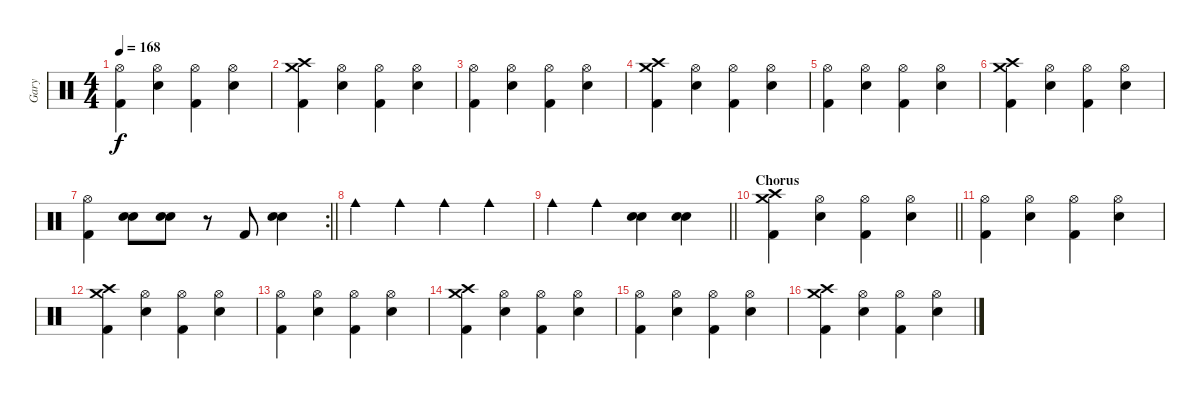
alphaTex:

\track ("Gary" "Gary") {instrument percussion}
\staff {score}
\articulation defaults
\ts (4 4)
\tempo 168
\clef neutral
\ks c
("Hi-Hat (open)" "Kick (hit) 2").4{dy f} ("Hi-Hat (open)" "Electric Snare (hit)").4 ("Hi-Hat (open)" "Kick (hit) 2").4 ("Hi-Hat (open)" "Electric Snare (hit)").4 |
("Crash medium (hit)" "Crash high (hit)" "Kick (hit) 2").4 ("Hi-Hat (open)" "Electric Snare (hit)").4 ("Hi-Hat (open)" "Kick (hit) 2").4 ("Hi-Hat (open)" "Electric Snare (hit)").4 |
("Hi-Hat (open)" "Kick (hit) 2").4 ("Hi-Hat (open)" "Electric Snare (hit)").4 ("Hi-Hat (open)" "Kick (hit) 2").4 ("Hi-Hat (open)" "Electric Snare (hit)").4 |
("Crash medium (hit)" "Crash high (hit)" "Kick (hit) 2").4 ("Hi-Hat (open)" "Electric Snare (hit)").4 ("Hi-Hat (open)" "Kick (hit) 2").4 ("Hi-Hat (open)" "Electric Snare (hit)").4 |
("Hi-Hat (open)" "Kick (hit) 2").4 ("Hi-Hat (open)" "Electric Snare (hit)").4 ("Hi-Hat (open)" "Kick (hit) 2").4 ("Hi-Hat (open)" "Electric Snare (hit)").4 |
("Crash medium (hit)" "Crash high (hit)" "Kick (hit) 2").4 ("Hi-Hat (open)" "Electric Snare (hit)").4 ("Hi-Hat (open)" "Kick (hit) 2").4 ("Hi-Hat (open)" "Electric Snare (hit)").4 |
\rc 2
\barLineRight lightlight
("Hi-Hat (open)" "Kick (hit) 2").4 ("Electric Snare (hit)" "Electric Snare (hit)").8 ("Electric Snare (hit)" "Electric Snare (hit)").8 r.8 "Kick (hit) 2".8 ("Electric Snare (hit)" "Electric Snare (hit)").4 |
"Cowbell medium (hit)".4 "Cowbell medium (hit)".4 "Cowbell medium (hit)".4 "Cowbell medium (hit)".4 |
\barLineRight lightlight "Cowbell medium (hit)".4 "Cowbell medium (hit)".4
("Electric Snare (hit)" "Electric Snare (hit)").4 ("Electric Snare (hit)" "Electric Snare (hit)").4 |
\section ("" "Chorus")
\barLineRight lightlight
("Crash medium (hit)" "Crash high (hit)" "Kick (hit) 2").4 ("Hi-Hat (open)" "Electric Snare (hit)").4 ("Hi-Hat (open)" "Kick (hit) 2").4 ("Hi-Hat (open)" "Electric Snare (hit)").4 |
("Hi-Hat (open)" "Kick (hit) 2").4 ("Hi-Hat (open)" "Electric Snare (hit)").4 ("Hi-Hat (open)" "Kick (hit) 2").4 ("Hi-Hat (open)" "Electric Snare (hit)").4 |
("Crash medium (hit)" "Crash high (hit)" "Kick (hit) 2").4 ("Hi-Hat (open)" "Electric Snare (hit)").4 ("Hi-Hat (open)" "Kick (hit) 2").4 ("Hi-Hat (open)" "Electric Snare (hit)").4 |
("Hi-Hat (open)" "Kick (hit) 2").4 ("Hi-Hat (open)" "Electric Snare (hit)").4 ("Hi-Hat (open)" "Kick (hit) 2").4 ("Hi-Hat (open)" "Electric Snare (hit)").4 |
("Crash medium (hit)" "Crash high (hit)" "Kick (hit) 2").4 ("Hi-Hat (open)" "Electric Snare (hit)").4 ("Hi-Hat (open)" "Kick (hit) 2").4 ("Hi-Hat (open)" "Electric Snare (hit)").4 |
("Hi-Hat (open)" "Kick (hit) 2").4 ("Hi-Hat (open)" "Electric Snare (hit)").4 ("Hi-Hat (open)" "Kick (hit) 2").4 ("Hi-Hat (open)" "Electric Snare (hit)").4 |
("Crash medium (hit)" "Crash high (hit)" "Kick (hit) 2").4 ("Hi-Hat (open)" "Electric Snare (hit)").4 ("Hi-Hat (open)" "Kick (hit) 2").4 ("Hi-Hat (open)" "Electric Snare (hit)").4
